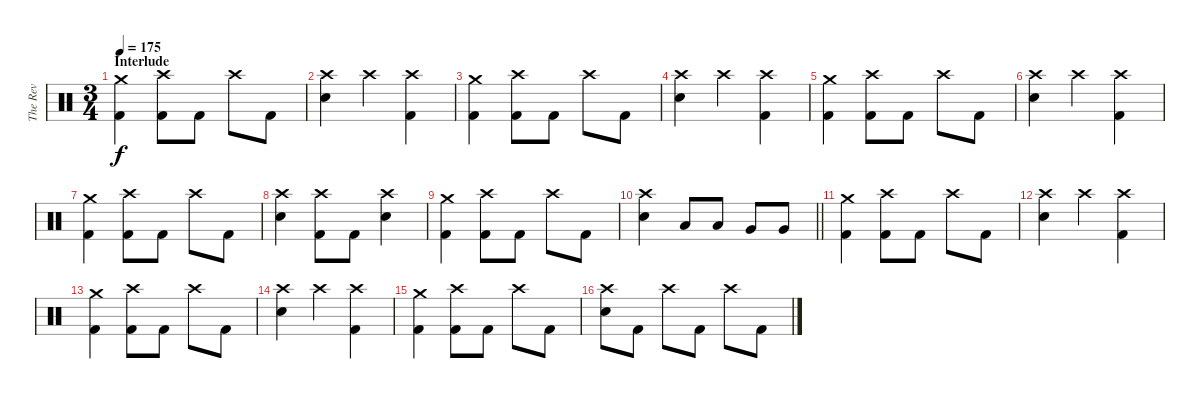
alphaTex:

\track ("The Rev" "The Rev") {instrument percussion}
\staff {score}
\articulation defaults
\ts (3 4)
\section ("" "Interlude")
\tempo 175
\clef neutral
\ks c
("Crash medium (hit)" "Kick (hit) 2").4{dy f} ("Crash high (hit)" "Kick (hit) 2").8 "Kick (hit) 2".8 "Crash high (hit)".8 "Kick (hit) 2".8 |
("Crash high (hit)" "Snare (hit) 2").4 "Crash high (hit)".4 ("Crash high (hit)" "Kick (hit) 2").4 |
("Crash medium (hit)" "Kick (hit) 2").4 ("Crash high (hit)" "Kick (hit) 2").8 "Kick (hit) 2".8 "Crash high (hit)".8 "Kick (hit) 2".8 |
("Crash high (hit)" "Snare (hit) 2").4 "Crash high (hit)".4 ("Crash high (hit)" "Kick (hit) 2").4 |
("Crash medium (hit)" "Kick (hit) 2").4 ("Crash high (hit)" "Kick (hit) 2").8 "Kick (hit) 2".8 "Crash high (hit)".8 "Kick (hit) 2".8 |
("Crash high (hit)" "Snare (hit) 2").4 "Crash high (hit)".4 ("Crash high (hit)" "Kick (hit) 2").4 |
("Crash medium (hit)" "Kick (hit) 2").4 ("Crash high (hit)" "Kick (hit) 2").8 "Kick (hit) 2".8 "Crash high (hit)".8 "Kick (hit) 2".8 |
("Crash high (hit)" "Snare (hit) 2").4 ("Crash high (hit)" "Kick (hit) 2").8 "Kick (hit) 2".8 ("Crash high (hit)" "Snare (hit) 2").4 |
("Crash medium (hit)" "Kick (hit) 2").4 ("Crash high (hit)" "Kick (hit) 2").8 "Kick (hit) 2".8 "Crash high (hit)".8 "Kick (hit) 2".8 |
\barLineRight lightlight
("Crash high (hit)" "Snare (hit) 2").4 "Low Tom (hit)".8 "Low Tom (hit)".8 "Very Low Tom (hit)".8 "Very Low Tom (hit)".8 |
("Crash medium (hit)" "Kick (hit) 2").4 ("Crash high (hit)" "Kick (hit) 2").8 "Kick (hit) 2".8 "Crash high (hit)".8 "Kick (hit) 2".8 |
("Crash high (hit)" "Snare (hit) 2").4 "Crash high (hit)".4 ("Crash high (hit)" "Kick (hit) 2").4 |
("Crash medium (hit)" "Kick (hit) 2").4 ("Crash high (hit)" "Kick (hit) 2").8 "Kick (hit) 2".8 "Crash high (hit)".8 "Kick (hit) 2".8 |
("Crash high (hit)" "Snare (hit) 2").4 "Crash high (hit)".4 ("Crash high (hit)" "Kick (hit) 2").4 |
("Crash medium (hit)" "Kick (hit) 2").4 ("Crash high (hit)" "Kick (hit) 2").8 "Kick (hit) 2".8 "Crash high (hit)".8 "Kick (hit) 2".8 |
("Crash high (hit)" "Snare (hit) 2").8 "Kick (hit) 2".8 "Crash high (hit)".8 "Kick (hit) 2".8 "Crash high (hit)".8 "Kick (hit) 2".8
